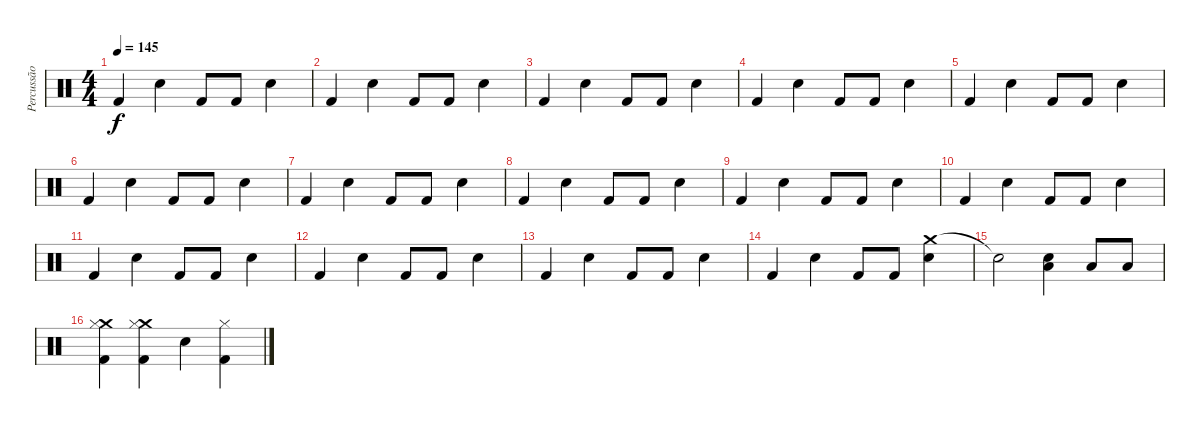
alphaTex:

\track ("Percussão" "Percussão") {instrument percussion}
\staff {score}
\articulation defaults
\ts (4 4)
\tempo 145
\clef neutral
\ks c "Kick (hit) 2".4{dy f} "Snare (hit) 2".4 "Kick (hit) 2".8 "Kick (hit) 2".8 "Snare (hit) 2".4
|
"Kick (hit) 2".4 "Snare (hit) 2".4 "Kick (hit) 2".8 "Kick (hit) 2".8 "Snare (hit) 2".4 |
"Kick (hit) 2".4 "Snare (hit) 2".4 "Kick (hit) 2".8 "Kick (hit) 2".8 "Snare (hit) 2".4 |
"Kick (hit) 2".4 "Snare (hit) 2".4 "Kick (hit) 2".8 "Kick (hit) 2".8 "Snare (hit) 2".4 |
"Kick (hit) 2".4 "Snare (hit) 2".4 "Kick (hit) 2".8 "Kick (hit) 2".8 "Snare (hit) 2".4 |
"Kick (hit) 2".4 "Snare (hit) 2".4 "Kick (hit) 2".8 "Kick (hit) 2".8 "Snare (hit) 2".4 |
"Kick (hit) 2".4 "Snare (hit) 2".4 "Kick (hit) 2".8 "Kick (hit) 2".8 "Snare (hit) 2".4 |
"Kick (hit) 2".4 "Snare (hit) 2".4 "Kick (hit) 2".8 "Kick (hit) 2".8 "Snare (hit) 2".4 |
"Kick (hit) 2".4 "Snare (hit) 2".4 "Kick (hit) 2".8 "Kick (hit) 2".8 "Snare (hit) 2".4 |
"Kick (hit) 2".4 "Snare (hit) 2".4 "Kick (hit) 2".8 "Kick (hit) 2".8 "Snare (hit) 2".4 |
"Kick (hit) 2".4 "Snare (hit) 2".4 "Kick (hit) 2".8 "Kick (hit) 2".8 "Snare (hit) 2".4 |
"Kick (hit) 2".4 "Snare (hit) 2".4 "Kick (hit) 2".8 "Kick (hit) 2".8 "Snare (hit) 2".4 |
"Kick (hit) 2".4 "Snare (hit) 2".4 "Kick (hit) 2".8 "Kick (hit) 2".8 "Snare (hit) 2".4 |
"Kick (hit) 2".4 "Snare (hit) 2".4 "Kick (hit) 2".8 "Kick (hit) 2".8 ("Crash medium (hit)" "Snare (hit) 2").4 |
"Snare (hit)"{t}.2{volume 16} ("Low Floor Tom (hit)" "Snare (hit) 2").4 "Low Floor Tom (hit)".8 "Low Floor Tom (hit)".8 |
("Crash medium (hit)" "Hi-Hat (closed)" "Kick (hit) 2").4{volume 13} ("Crash medium (hit)" "Hi-Hat (closed)" "Kick (hit) 2").4 "Snare (hit) 2".4 ("Hi-Hat (closed)" "Kick (hit) 2").4
